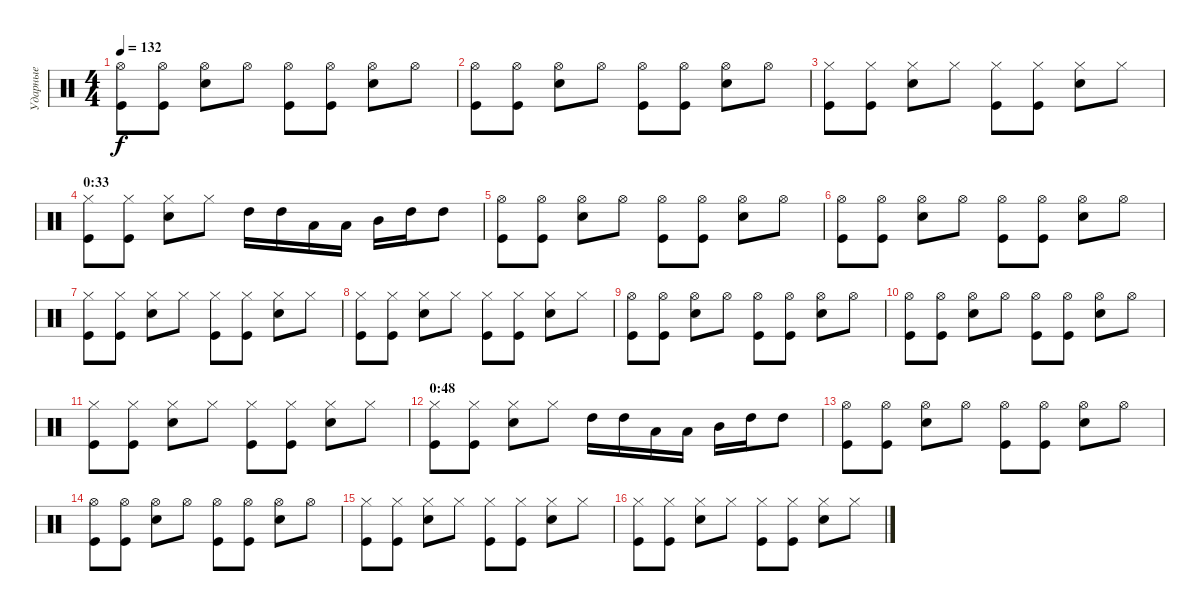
\track ("Ударные" "Ударные") {instrument percussion}
\staff {score}
\articulation defaults
\ts (4 4)
\tempo 132
\clef neutral
\ks c
("Hi-Hat (open)" "Kick (hit)").8{dy f} ("Hi-Hat (open)" "Kick (hit)").8 ("Hi-Hat (open)" "Snare (hit) 2").8 "Hi-Hat (open)".8 ("Hi-Hat (open)" "Kick (hit)").8 ("Hi-Hat (open)" "Kick (hit)").8 ("Hi-Hat (open)" "Snare (hit) 2").8 "Hi-Hat (open)".8 |
("Hi-Hat (open)" "Kick (hit)").8 ("Hi-Hat (open)" "Kick (hit)").8 ("Hi-Hat (open)" "Snare (hit) 2").8 "Hi-Hat (open)".8 ("Hi-Hat (open)" "Kick (hit)").8 ("Hi-Hat (open)" "Kick (hit)").8 ("Hi-Hat (open)" "Snare (hit) 2").8 "Hi-Hat (open)".8 |
("Hi-Hat (closed)" "Kick (hit)").8 ("Hi-Hat (closed)" "Kick (hit)").8 ("Hi-Hat (closed)" "Snare (hit) 2").8 "Hi-Hat (closed)".8 ("Hi-Hat (closed)" "Kick (hit)").8 ("Hi-Hat (closed)" "Kick (hit)").8 ("Hi-Hat (closed)" "Snare (hit) 2").8 "Hi-Hat (closed)".8 |
\section ("" "0:33")
("Hi-Hat (closed)" "Kick (hit)").8 ("Hi-Hat (closed)" "Kick (hit)").8 ("Hi-Hat (closed)" "Snare (hit) 2").8 "Hi-Hat (closed)".8 "High Tom (hit)".16 "High Tom (hit)".16 "Low Tom (hit)".16 "Low Tom (hit)".16 "Mid Tom (hit)".16 "High Tom (hit)".16 "High Tom (hit)".8 |
("Hi-Hat (open)" "Kick (hit)").8 ("Hi-Hat (open)" "Kick (hit)").8 ("Hi-Hat (open)" "Snare (hit) 2").8 "Hi-Hat (open)".8 ("Hi-Hat (open)" "Kick (hit)").8 ("Hi-Hat (open)" "Kick (hit)").8 ("Hi-Hat (open)" "Snare (hit) 2").8 "Hi-Hat (open)".8 |
("Hi-Hat (open)" "Kick (hit)").8 ("Hi-Hat (open)" "Kick (hit)").8 ("Hi-Hat (open)" "Snare (hit) 2").8 "Hi-Hat (open)".8 ("Hi-Hat (open)" "Kick (hit)").8 ("Hi-Hat (open)" "Kick (hit)").8 ("Hi-Hat (open)" "Snare (hit) 2").8 "Hi-Hat (open)".8 |
("Hi-Hat (closed)" "Kick (hit)").8 ("Hi-Hat (closed)" "Kick (hit)").8 ("Hi-Hat (closed)" "Snare (hit) 2").8 "Hi-Hat (closed)".8 ("Hi-Hat (closed)" "Kick (hit)").8 ("Hi-Hat (closed)" "Kick (hit)").8 ("Hi-Hat (closed)" "Snare (hit) 2").8 "Hi-Hat (closed)".8 |
("Hi-Hat (closed)" "Kick (hit)").8 ("Hi-Hat (closed)" "Kick (hit)").8 ("Hi-Hat (closed)" "Snare (hit) 2").8 "Hi-Hat (closed)".8 ("Hi-Hat (closed)" "Kick (hit)").8 ("Hi-Hat (closed)" "Kick (hit)").8 ("Hi-Hat (closed)" "Snare (hit) 2").8 "Hi-Hat (closed)".8 |
("Hi-Hat (open)" "Kick (hit)").8 ("Hi-Hat (open)" "Kick (hit)").8 ("Hi-Hat (open)" "Snare (hit) 2").8 "Hi-Hat (open)".8 ("Hi-Hat (open)" "Kick (hit)").8 ("Hi-Hat (open)" "Kick (hit)").8 ("Hi-Hat (open)" "Snare (hit) 2").8 "Hi-Hat (open)".8 |
("Hi-Hat (open)" "Kick (hit)").8 ("Hi-Hat (open)" "Kick (hit)").8 ("Hi-Hat (open)" "Snare (hit) 2").8 "Hi-Hat (open)".8 ("Hi-Hat (open)" "Kick (hit)").8 ("Hi-Hat (open)" "Kick (hit)").8 ("Hi-Hat (open)" "Snare (hit) 2").8 "Hi-Hat (open)".8 |
("Hi-Hat (closed)" "Kick (hit)").8 ("Hi-Hat (closed)" "Kick (hit)").8 ("Hi-Hat (closed)" "Snare (hit) 2").8 "Hi-Hat (closed)".8 ("Hi-Hat (closed)" "Kick (hit)").8 ("Hi-Hat (closed)" "Kick (hit)").8 ("Hi-Hat (closed)" "Snare (hit) 2").8 "Hi-Hat (closed)".8 |
\section ("" "0:48")
("Hi-Hat (closed)" "Kick (hit)").8 ("Hi-Hat (closed)" "Kick (hit)").8 ("Hi-Hat (closed)" "Snare (hit) 2").8 "Hi-Hat (closed)".8 "High Tom (hit)".16 "High Tom (hit)".16 "Low Tom (hit)".16 "Low Tom (hit)".16 "Mid Tom (hit)".16 "High Tom (hit)".16 "High Tom (hit)".8 |
("Hi-Hat (open)" "Kick (hit)").8 ("Hi-Hat (open)" "Kick (hit)").8 ("Hi-Hat (open)" "Snare (hit) 2").8 "Hi-Hat (open)".8 ("Hi-Hat (open)" "Kick (hit)").8 ("Hi-Hat (open)" "Kick (hit)").8 ("Hi-Hat (open)" "Snare (hit) 2").8 "Hi-Hat (open)".8 |
("Hi-Hat (open)" "Kick (hit)").8 ("Hi-Hat (open)" "Kick (hit)").8 ("Hi-Hat (open)" "Snare (hit) 2").8 "Hi-Hat (open)".8 ("Hi-Hat (open)" "Kick (hit)").8 ("Hi-Hat (open)" "Kick (hit)").8 ("Hi-Hat (open)" "Snare (hit) 2").8 "Hi-Hat (open)".8 |
("Hi-Hat (closed)" "Kick (hit)").8 ("Hi-Hat (closed)" "Kick (hit)").8 ("Hi-Hat (closed)" "Snare (hit) 2").8 "Hi-Hat (closed)".8 ("Hi-Hat (closed)" "Kick (hit)").8 ("Hi-Hat (closed)" "Kick (hit)").8 ("Hi-Hat (closed)" "Snare (hit) 2").8 "Hi-Hat (closed)".8 |
("Hi-Hat (closed)" "Kick (hit)").8 ("Hi-Hat (closed)" "Kick (hit)").8 ("Hi-Hat (closed)" "Snare (hit) 2").8 "Hi-Hat (closed)".8 ("Hi-Hat (closed)" "Kick (hit)").8 ("Hi-Hat (closed)" "Kick (hit)").8 ("Hi-Hat (closed)" "Snare (hit) 2").8 "Hi-Hat (closed)".8
